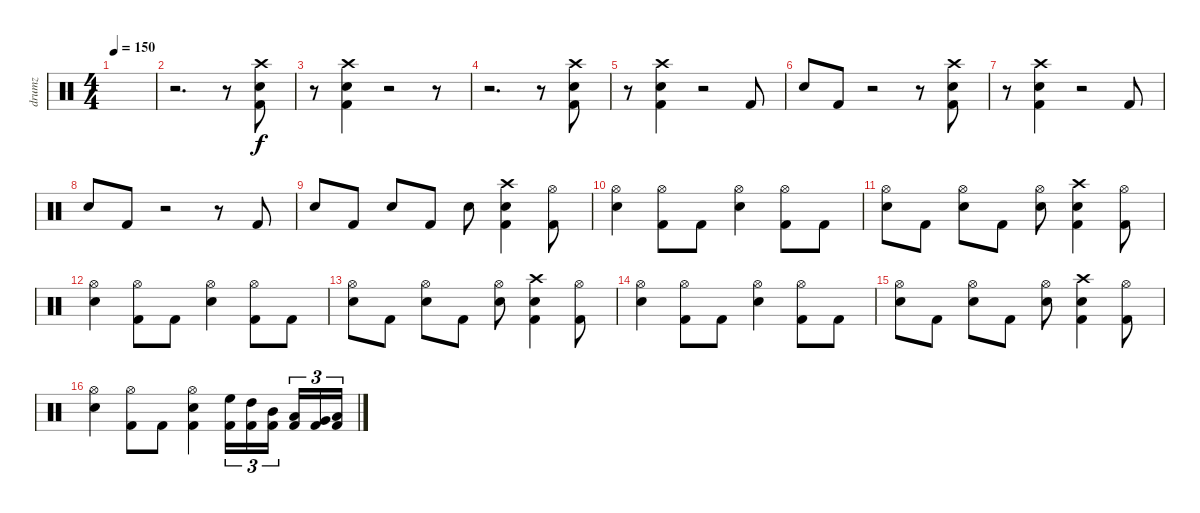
\track ("drumz" "drumz") {instrument percussion}
\staff {score}
\articulation defaults
\ts (4 4)
\tempo 150
\clef neutral
\ks c
|
r.2{d} r.8 ("Crash high (hit)" "Electric Snare (hit)" "Kick (hit) 2").8 |
r.8 ("Crash high (hit)" "Electric Snare (hit)" "Kick (hit) 2").4 r.2 r.8 |
r.2{d} r.8 ("Crash high (hit)" "Electric Snare (hit)" "Kick (hit) 2").8 |
r.8 ("Crash high (hit)" "Electric Snare (hit)" "Kick (hit) 2").4 r.2 "Kick (hit) 2".8 |
"Electric Snare (hit)".8 "Kick (hit) 2".8 r.2 r.8 ("Crash high (hit)" "Electric Snare (hit)" "Kick (hit) 2").8 |
r.8 ("Crash high (hit)" "Electric Snare (hit)" "Kick (hit) 2").4 r.2 "Kick (hit) 2".8 |
"Electric Snare (hit)".8 "Kick (hit) 2".8 r.2 r.8 "Kick (hit) 2".8 |
"Electric Snare (hit)".8 "Kick (hit) 2".8 "Electric Snare (hit)".8 "Kick (hit) 2".8 "Electric Snare (hit)".8 ("Crash high (hit)" "Electric Snare (hit)" "Kick (hit) 2").4 ("Hi-Hat (open)" "Kick (hit) 2").8 |
("Hi-Hat (open)" "Electric Snare (hit)").4 ("Hi-Hat (open)" "Kick (hit) 2").8 "Kick (hit) 2".8 ("Hi-Hat (open)" "Electric Snare (hit)").4 ("Hi-Hat (open)" "Kick (hit) 2").8 "Kick (hit) 2".8 |
("Hi-Hat (open)" "Electric Snare (hit)").8 "Kick (hit) 2".8 ("Hi-Hat (open)" "Electric Snare (hit)").8 "Kick (hit) 2".8 ("Hi-Hat (open)" "Electric Snare (hit)").8 ("Crash high (hit)" "Electric Snare (hit)" "Kick (hit) 2").4 ("Hi-Hat (open)" "Kick (hit) 2").8 |
("Hi-Hat (open)" "Electric Snare (hit)").4 ("Hi-Hat (open)" "Kick (hit) 2").8 "Kick (hit) 2".8 ("Hi-Hat (open)" "Electric Snare (hit)").4 ("Hi-Hat (open)" "Kick (hit) 2").8 "Kick (hit) 2".8 |
("Hi-Hat (open)" "Electric Snare (hit)").8 "Kick (hit) 2".8 ("Hi-Hat (open)" "Electric Snare (hit)").8 "Kick (hit) 2".8 ("Hi-Hat (open)" "Electric Snare (hit)").8 ("Crash high (hit)" "Electric Snare (hit)" "Kick (hit) 2").4 ("Hi-Hat (open)" "Kick (hit) 2").8 |
("Hi-Hat (open)" "Electric Snare (hit)").4 ("Hi-Hat (open)" "Kick (hit) 2").8 "Kick (hit) 2".8 ("Hi-Hat (open)" "Electric Snare (hit)").4 ("Hi-Hat (open)" "Kick (hit) 2").8 "Kick (hit) 2".8 |
("Hi-Hat (open)" "Electric Snare (hit)").8 "Kick (hit) 2".8 ("Hi-Hat (open)" "Electric Snare (hit)").8 "Kick (hit) 2".8 ("Hi-Hat (open)" "Electric Snare (hit)").8 ("Crash high (hit)" "Electric Snare (hit)" "Kick (hit) 2").4 ("Hi-Hat (open)" "Kick (hit) 2").8 |
("Hi-Hat (open)" "Electric Snare (hit)").4 ("Hi-Hat (open)" "Kick (hit) 2").8 "Kick (hit) 2".8 ("Hi-Hat (open)" "Electric Snare (hit)" "Kick (hit) 2").4 ("High Floor Tom (hit)" "Kick (hit) 2").16{tu (3 2)} ("High Tom (hit)" "Kick (hit) 2").16{tu (3 2)} ("Mid Tom (hit)" "Kick (hit) 2").16{tu (3 2) beam splitsecondary} ("Low Tom (hit)" "Kick (hit) 2").16{tu (3 2)} ("Very Low Tom (hit)" "Kick (hit) 2").16{tu (3 2)} ("Low Floor Tom (hit)" "Kick (hit) 2").16{tu (3 2)}
